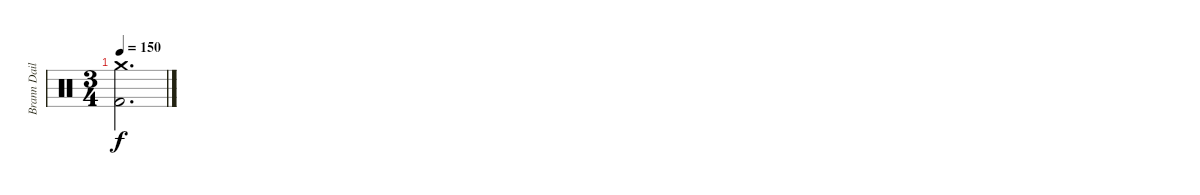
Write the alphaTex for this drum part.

\track ("Brann Dailor - Drums" "Brann Dail") {instrument percussion}
\staff {score}
\articulation defaults
\ts (3 4)
\tempo 150
\clef neutral
\ks c
("Crash medium (hit)" "Kick (hit) 2").2{d dy f}
